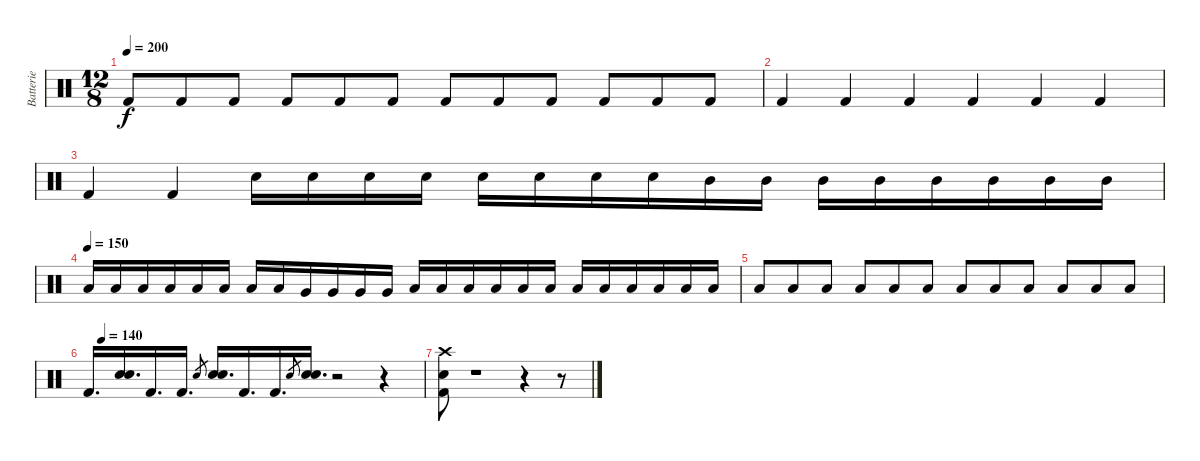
\track ("Batterie" "Batterie") {instrument percussion}
\staff {score}
\articulation defaults
\ts (12 8)
\tempo 200
\clef neutral
\ks c "Kick (hit) 2".8{dy f} "Kick (hit) 2".8 "Kick (hit) 2".8 "Kick (hit) 2".8 "Kick (hit) 2".8 "Kick (hit) 2".8 "Kick (hit) 2".8 "Kick (hit) 2".8 "Kick (hit) 2".8 "Kick (hit) 2".8 "Kick (hit) 2".8 "Kick (hit) 2".8
|
"Kick (hit) 2".4 "Kick (hit) 2".4 "Kick (hit) 2".4 "Kick (hit) 2".4 "Kick (hit) 2".4 "Kick (hit) 2".4 |
"Kick (hit) 2".4 "Kick (hit) 2".4 "Electric Snare (hit)".16 "Electric Snare (hit)".16 "Electric Snare (hit)".16 "Electric Snare (hit)".16 "Electric Snare (hit)".16 "Electric Snare (hit)".16 "Electric Snare (hit)".16 "Electric Snare (hit)".16 "Mid Tom (hit)".16 "Mid Tom (hit)".16 "Mid Tom (hit)".16 "Mid Tom (hit)".16 "Mid Tom (hit)".16 "Mid Tom (hit)".16 "Mid Tom (hit)".16 "Mid Tom (hit)".16 |
\tempo (150)
"Low Tom (hit)".16 "Low Tom (hit)".16 "Low Tom (hit)".16 "Low Tom (hit)".16 "Low Tom (hit)".16 "Low Tom (hit)".16 "Low Tom (hit)".16 "Low Tom (hit)".16 "Very Low Tom (hit)".16 "Very Low Tom (hit)".16 "Very Low Tom (hit)".16 "Very Low Tom (hit)".16 "Low Floor Tom (hit)".16 "Low Floor Tom (hit)".16 "Low Floor Tom (hit)".16 "Low Floor Tom (hit)".16 "Low Floor Tom (hit)".16 "Low Floor Tom (hit)".16 "Low Floor Tom (hit)".16 "Low Floor Tom (hit)".16 "Low Floor Tom (hit)".16 "Low Floor Tom (hit)".16 "Low Floor Tom (hit)".16 "Low Floor Tom (hit)".16 |
"Low Floor Tom (hit)".8 "Low Floor Tom (hit)".8 "Low Floor Tom (hit)".8 "Low Floor Tom (hit)".8 "Low Floor Tom (hit)".8 "Low Floor Tom (hit)".8 "Low Floor Tom (hit)".8 "Low Floor Tom (hit)".8 "Low Floor Tom (hit)".8 "Low Floor Tom (hit)".8 "Low Floor Tom (hit)".8 "Low Floor Tom (hit)".8 |
\tempo (140 0.041666666666666664)
"Kick (hit) 2".16{d} ("Electric Snare (hit)" "Electric Snare (hit)").16{d} "Kick (hit) 2".16{d} "Kick (hit) 2".16{d} "Electric Snare (hit)".8{gr} ("Electric Snare (hit)" "Electric Snare (hit)").16{d} "Kick (hit) 2".16{d} "Kick (hit) 2".16{d} "Electric Snare (hit)".8{gr} ("Electric Snare (hit)" "Electric Snare (hit)").16{d} r.2 r.4 |
("Crash high (hit)" "Electric Snare (hit)" "Kick (hit) 2").8 r.1 r.4 r.8
